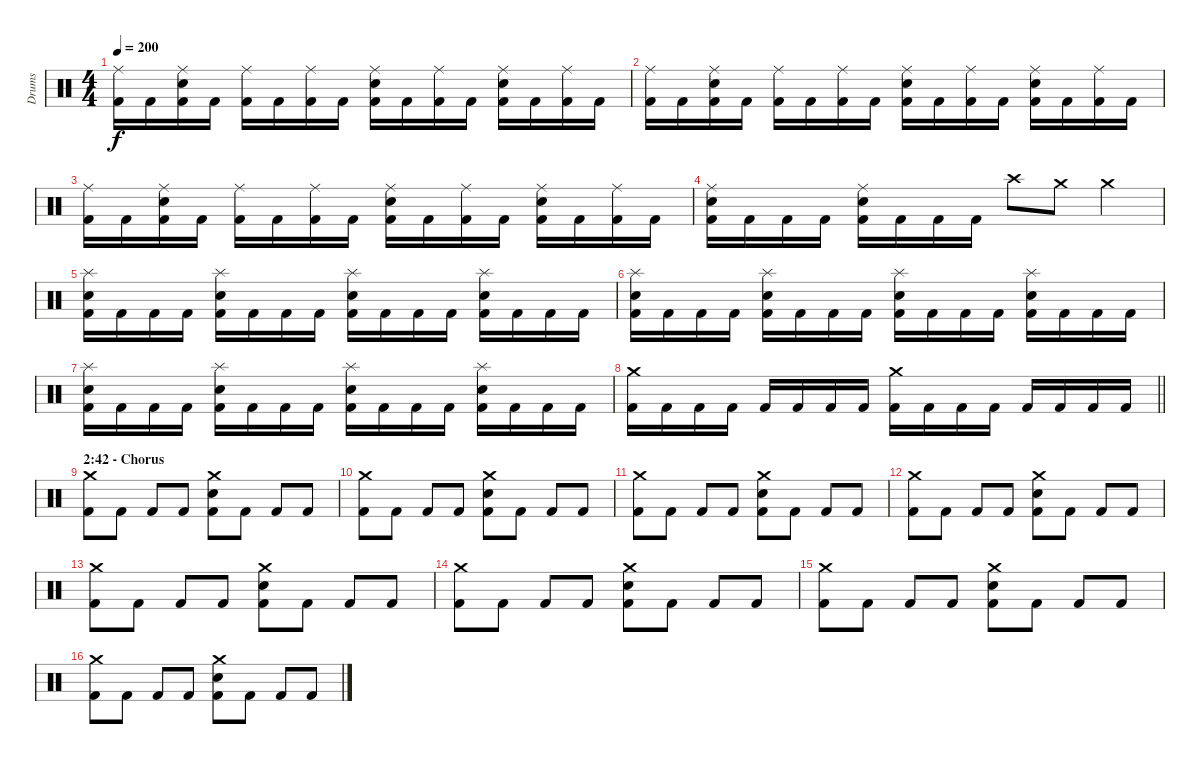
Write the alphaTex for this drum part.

\track ("Drums" "Drums") {instrument percussion}
\staff {score}
\articulation defaults
\ts (4 4)
\tempo 200
\clef neutral
\ks c
("Ride (middle)" "Kick (hit) 2").16{dy f} "Kick (hit) 2".16 ("Ride (middle)" "Electric Snare (hit)" "Kick (hit) 2").16 "Kick (hit) 2".16 ("Ride (middle)" "Kick (hit) 2").16 "Kick (hit) 2".16 ("Ride (middle)" "Kick (hit) 2").16 "Kick (hit) 2".16 ("Ride (middle)" "Electric Snare (hit)" "Kick (hit) 2").16 "Kick (hit) 2".16 ("Ride (middle)" "Kick (hit) 2").16 "Kick (hit) 2".16 ("Ride (middle)" "Electric Snare (hit)" "Kick (hit) 2").16 "Kick (hit) 2".16 ("Ride (middle)" "Kick (hit) 2").16 "Kick (hit) 2".16 |
("Ride (middle)" "Kick (hit) 2").16 "Kick (hit) 2".16 ("Ride (middle)" "Electric Snare (hit)" "Kick (hit) 2").16 "Kick (hit) 2".16 ("Ride (middle)" "Kick (hit) 2").16 "Kick (hit) 2".16 ("Ride (middle)" "Kick (hit) 2").16 "Kick (hit) 2".16 ("Ride (middle)" "Electric Snare (hit)" "Kick (hit) 2").16 "Kick (hit) 2".16 ("Ride (middle)" "Kick (hit) 2").16 "Kick (hit) 2".16 ("Ride (middle)" "Electric Snare (hit)" "Kick (hit) 2").16 "Kick (hit) 2".16 ("Ride (middle)" "Kick (hit) 2").16 "Kick (hit) 2".16 |
("Ride (middle)" "Kick (hit) 2").16 "Kick (hit) 2".16 ("Ride (middle)" "Electric Snare (hit)" "Kick (hit) 2").16 "Kick (hit) 2".16 ("Ride (middle)" "Kick (hit) 2").16 "Kick (hit) 2".16 ("Ride (middle)" "Kick (hit) 2").16 "Kick (hit) 2".16 ("Ride (middle)" "Electric Snare (hit)" "Kick (hit) 2").16 "Kick (hit) 2".16 ("Ride (middle)" "Kick (hit) 2").16 "Kick (hit) 2".16 ("Ride (middle)" "Electric Snare (hit)" "Kick (hit) 2").16 "Kick (hit) 2".16 ("Ride (middle)" "Kick (hit) 2").16 "Kick (hit) 2".16 |
("Ride (middle)" "Electric Snare (hit)" "Kick (hit) 2").16 "Kick (hit) 2".16 "Kick (hit) 2".16 "Kick (hit) 2".16 ("Ride (middle)" "Electric Snare (hit)" "Kick (hit) 2").16 "Kick (hit) 2".16 "Kick (hit) 2".16 "Kick (hit) 2".16 "Crash high (hit)".8 "Crash medium (hit)".8 "Crash medium (hit)".4 |
("Splash (hit)" "Electric Snare (hit)" "Kick (hit) 2").16 "Kick (hit) 2".16 "Kick (hit) 2".16 "Kick (hit) 2".16 ("Splash (hit)" "Electric Snare (hit)" "Kick (hit) 2").16 "Kick (hit) 2".16 "Kick (hit) 2".16 "Kick (hit) 2".16 ("Splash (hit)" "Electric Snare (hit)" "Kick (hit) 2").16 "Kick (hit) 2".16 "Kick (hit) 2".16 "Kick (hit) 2".16 ("Splash (hit)" "Electric Snare (hit)" "Kick (hit) 2").16 "Kick (hit) 2".16 "Kick (hit) 2".16 "Kick (hit) 2".16 |
("Splash (hit)" "Electric Snare (hit)" "Kick (hit) 2").16 "Kick (hit) 2".16 "Kick (hit) 2".16 "Kick (hit) 2".16 ("Splash (hit)" "Electric Snare (hit)" "Kick (hit) 2").16 "Kick (hit) 2".16 "Kick (hit) 2".16 "Kick (hit) 2".16 ("Splash (hit)" "Electric Snare (hit)" "Kick (hit) 2").16 "Kick (hit) 2".16 "Kick (hit) 2".16 "Kick (hit) 2".16 ("Splash (hit)" "Electric Snare (hit)" "Kick (hit) 2").16 "Kick (hit) 2".16 "Kick (hit) 2".16 "Kick (hit) 2".16 |
("Splash (hit)" "Electric Snare (hit)" "Kick (hit) 2").16 "Kick (hit) 2".16 "Kick (hit) 2".16 "Kick (hit) 2".16 ("Splash (hit)" "Electric Snare (hit)" "Kick (hit) 2").16 "Kick (hit) 2".16 "Kick (hit) 2".16 "Kick (hit) 2".16 ("Splash (hit)" "Electric Snare (hit)" "Kick (hit) 2").16 "Kick (hit) 2".16 "Kick (hit) 2".16 "Kick (hit) 2".16 ("Splash (hit)" "Electric Snare (hit)" "Kick (hit) 2").16 "Kick (hit) 2".16 "Kick (hit) 2".16 "Kick (hit) 2".16 |
\barLineRight lightlight
("Crash medium (hit)" "Kick (hit) 2").16 "Kick (hit) 2".16 "Kick (hit) 2".16 "Kick (hit) 2".16 "Kick (hit) 2".16 "Kick (hit) 2".16 "Kick (hit) 2".16 "Kick (hit) 2".16 ("Crash medium (hit)" "Kick (hit) 2").16 "Kick (hit) 2".16 "Kick (hit) 2".16 "Kick (hit) 2".16 "Kick (hit) 2".16 "Kick (hit) 2".16 "Kick (hit) 2".16 "Kick (hit) 2".16 |
\section ("" "2:42 - Chorus")
("Crash medium (hit)" "Kick (hit) 2").8 "Kick (hit) 2".8 "Kick (hit) 2".8 "Kick (hit) 2".8 ("Crash medium (hit)" "Electric Snare (hit)" "Kick (hit) 2").8 "Kick (hit) 2".8 "Kick (hit) 2".8 "Kick (hit) 2".8 |
("Crash medium (hit)" "Kick (hit) 2").8 "Kick (hit) 2".8 "Kick (hit) 2".8 "Kick (hit) 2".8 ("Crash medium (hit)" "Electric Snare (hit)" "Kick (hit) 2").8 "Kick (hit) 2".8 "Kick (hit) 2".8 "Kick (hit) 2".8 |
("Crash medium (hit)" "Kick (hit) 2").8 "Kick (hit) 2".8 "Kick (hit) 2".8 "Kick (hit) 2".8 ("Crash medium (hit)" "Electric Snare (hit)" "Kick (hit) 2").8 "Kick (hit) 2".8 "Kick (hit) 2".8 "Kick (hit) 2".8 |
("Crash medium (hit)" "Kick (hit) 2").8 "Kick (hit) 2".8 "Kick (hit) 2".8 "Kick (hit) 2".8 ("Crash medium (hit)" "Electric Snare (hit)" "Kick (hit) 2").8 "Kick (hit) 2".8 "Kick (hit) 2".8 "Kick (hit) 2".8 |
("Crash medium (hit)" "Kick (hit) 2").8 "Kick (hit) 2".8 "Kick (hit) 2".8 "Kick (hit) 2".8 ("Crash medium (hit)" "Electric Snare (hit)" "Kick (hit) 2").8 "Kick (hit) 2".8 "Kick (hit) 2".8 "Kick (hit) 2".8 |
("Crash medium (hit)" "Kick (hit) 2").8 "Kick (hit) 2".8 "Kick (hit) 2".8 "Kick (hit) 2".8 ("Crash medium (hit)" "Electric Snare (hit)" "Kick (hit) 2").8 "Kick (hit) 2".8 "Kick (hit) 2".8 "Kick (hit) 2".8 |
("Crash medium (hit)" "Kick (hit) 2").8 "Kick (hit) 2".8 "Kick (hit) 2".8 "Kick (hit) 2".8 ("Crash medium (hit)" "Electric Snare (hit)" "Kick (hit) 2").8 "Kick (hit) 2".8 "Kick (hit) 2".8 "Kick (hit) 2".8 |
("Crash medium (hit)" "Kick (hit) 2").8 "Kick (hit) 2".8 "Kick (hit) 2".8 "Kick (hit) 2".8 ("Crash medium (hit)" "Electric Snare (hit)" "Kick (hit) 2").8 "Kick (hit) 2".8 "Kick (hit) 2".8 "Kick (hit) 2".8
